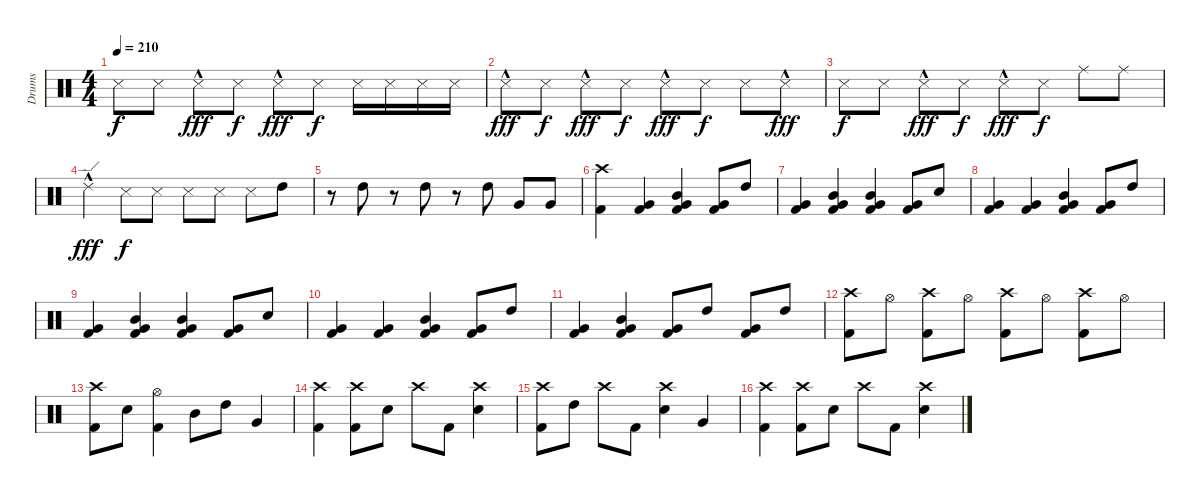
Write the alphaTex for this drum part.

\track ("Drums" "Drums") {instrument percussion}
\staff {score}
\articulation defaults
\ts (4 4)
\tempo 210
\clef neutral
\ks c "Metronome (hit)".8{dy f} "Metronome (hit)".8 "Metronome (hit)"{hac}.8{dy fff} "Metronome (hit)".8{dy f} "Metronome (hit)"{hac}.8{dy fff} "Metronome (hit)".8{dy f} "Metronome (hit)".16 "Metronome (hit)".16 "Metronome (hit)".16 "Metronome (hit)".16
|
"Metronome (hit)"{hac}.8{dy fff} "Metronome (hit)".8{dy f} "Metronome (hit)"{hac}.8{dy fff} "Metronome (hit)".8{dy f} "Metronome (hit)"{hac}.8{dy fff} "Metronome (hit)".8{dy f} "Metronome (hit)".8 "Metronome (hit)"{hac}.8{dy fff} |
"Metronome (hit)".8{dy f} "Metronome (hit)".8 "Metronome (hit)"{hac}.8{dy fff} "Metronome (hit)".8{dy f} "Metronome (hit)"{hac}.8{dy fff} "Metronome (hit)".8{dy f} "Ride (middle)".8 "Ride (middle)".8 |
"Ride (edge) 2"{hac}.4{dy fff} "Metronome (hit)".8{dy f} "Metronome (hit)".8 "Metronome (hit)".8 "Metronome (hit)".8 "Metronome (hit)".8 "High Tom (hit)".8 |
r.8 "High Tom (hit)".8 r.8 "High Tom (hit)".8 r.8 "High Tom (hit)".8 "Very Low Tom (hit)".8 "Very Low Tom (hit)".8 |
("Crash high (hit)" "Kick (hit) 2").4 ("Very Low Tom (hit)" "Kick (hit) 2").4 ("Mid Tom (hit)" "Very Low Tom (hit)" "Kick (hit) 2").4 ("Very Low Tom (hit)" "Kick (hit) 2").8 "High Tom (hit)".8 |
("Very Low Tom (hit)" "Kick (hit) 2").4 ("Mid Tom (hit)" "Very Low Tom (hit)" "Kick (hit) 2").4 ("Mid Tom (hit)" "Very Low Tom (hit)" "Kick (hit) 2").4 ("Very Low Tom (hit)" "Kick (hit) 2").8 "Snare (hit) 2".8 |
("Very Low Tom (hit)" "Kick (hit) 2").4 ("Very Low Tom (hit)" "Kick (hit) 2").4 ("Mid Tom (hit)" "Very Low Tom (hit)" "Kick (hit) 2").4 ("Very Low Tom (hit)" "Kick (hit) 2").8 "High Tom (hit)".8 |
("Very Low Tom (hit)" "Kick (hit) 2").4 ("Mid Tom (hit)" "Very Low Tom (hit)" "Kick (hit) 2").4 ("Mid Tom (hit)" "Very Low Tom (hit)" "Kick (hit) 2").4 ("Very Low Tom (hit)" "Kick (hit) 2").8 "Snare (hit) 2".8 |
("Very Low Tom (hit)" "Kick (hit) 2").4 ("Very Low Tom (hit)" "Kick (hit) 2").4 ("Mid Tom (hit)" "Very Low Tom (hit)" "Kick (hit) 2").4 ("Very Low Tom (hit)" "Kick (hit) 2").8 "High Tom (hit)".8 |
("Very Low Tom (hit)" "Kick (hit) 2").4 ("Mid Tom (hit)" "Very Low Tom (hit)" "Kick (hit) 2").4 ("Very Low Tom (hit)" "Kick (hit) 2").8 "High Tom (hit)".8 ("Very Low Tom (hit)" "Kick (hit) 2").8 "High Tom (hit)".8 |
("Crash high (hit)" "Kick (hit) 2").8 "Hi-Hat (open)".8 ("Crash high (hit)" "Kick (hit) 2").8 "Hi-Hat (open)".8 ("Crash high (hit)" "Kick (hit) 2").8 "Hi-Hat (open)".8 ("Crash high (hit)" "Kick (hit) 2").8 "Hi-Hat (open)".8 |
("Crash high (hit)" "Kick (hit) 2").8 "Snare (hit) 2".8 ("Hi-Hat (open)" "Kick (hit) 2").4 "Mid Tom (hit)".8 "High Tom (hit)".8 "Very Low Tom (hit)".4 |
("Crash high (hit)" "Kick (hit) 2").4 ("Crash high (hit)" "Kick (hit) 2").8 "Snare (hit) 2".8 "Crash high (hit)".8 "Kick (hit) 2".8 ("Crash high (hit)" "Snare (hit) 2").4 |
("Crash high (hit)" "Kick (hit) 2").8 "High Tom (hit)".8 "Crash high (hit)".8 "Kick (hit) 2".8 ("Crash high (hit)" "Snare (hit) 2").4 "Very Low Tom (hit)".4 |
("Crash high (hit)" "Kick (hit) 2").4 ("Crash high (hit)" "Kick (hit) 2").8 "Snare (hit) 2".8 "Crash high (hit)".8 "Kick (hit) 2".8 ("Crash high (hit)" "Snare (hit) 2").4
